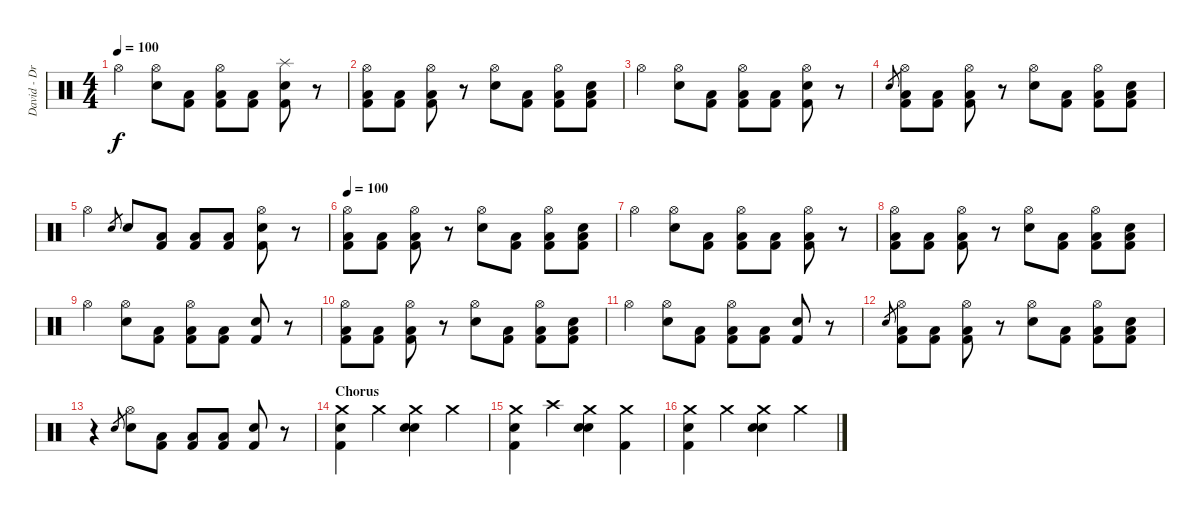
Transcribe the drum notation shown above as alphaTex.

\track ("David - Drums" "David - Dr") {instrument percussion}
\staff {score}
\articulation defaults
\ts (4 4)
\tempo 100
\clef neutral
\ks c "Hi-Hat (open)".4{dy f}
("Hi-Hat (open)" "Electric Snare (hit)").8 ("Low Floor Tom (hit)" "Kick (hit) 2").8 ("Hi-Hat (open)" "Low Floor Tom (hit)" "Kick (hit) 2").8 ("Low Floor Tom (hit)" "Kick (hit) 2").8 ("Splash (hit)" "Electric Snare (hit)" "Kick (hit) 2").8 r.8 |
("Hi-Hat (open)" "Low Floor Tom (hit)" "Kick (hit) 2").8 ("Low Floor Tom (hit)" "Kick (hit) 2").8 ("Hi-Hat (open)" "Low Floor Tom (hit)" "Kick (hit) 2").8 r.8 ("Hi-Hat (open)" "Electric Snare (hit)").8 ("Low Floor Tom (hit)" "Kick (hit) 2").8 ("Hi-Hat (open)" "Low Floor Tom (hit)" "Kick (hit) 2").8 ("Electric Snare (hit)" "Low Floor Tom (hit)" "Kick (hit) 2").8 |
"Hi-Hat (open)".4 ("Hi-Hat (open)" "Electric Snare (hit)").8 ("Low Floor Tom (hit)" "Kick (hit) 2").8 ("Hi-Hat (open)" "Low Floor Tom (hit)" "Kick (hit) 2").8 ("Low Floor Tom (hit)" "Kick (hit) 2").8 ("Hi-Hat (open)" "Electric Snare (hit)" "Kick (hit) 2").8 r.8 |
"Electric Snare (hit)".8{gr} ("Hi-Hat (open)" "Low Floor Tom (hit)" "Kick (hit) 2").8 ("Low Floor Tom (hit)" "Kick (hit) 2").8 ("Hi-Hat (open)" "Low Floor Tom (hit)" "Kick (hit) 2").8 r.8 ("Hi-Hat (open)" "Electric Snare (hit)").8 ("Low Floor Tom (hit)" "Kick (hit) 2").8 ("Hi-Hat (open)" "Low Floor Tom (hit)" "Kick (hit) 2").8 ("Electric Snare (hit)" "Low Floor Tom (hit)" "Kick (hit) 2").8 |
"Hi-Hat (open)".4 "Electric Snare (hit)".8{gr} "Electric Snare (hit)".8 ("Low Floor Tom (hit)" "Kick (hit) 2").8 ("Low Floor Tom (hit)" "Kick (hit) 2").8 ("Low Floor Tom (hit)" "Kick (hit) 2").8 ("Hi-Hat (open)" "Electric Snare (hit)" "Kick (hit) 2").8 r.8 |
\tempo 100
("Hi-Hat (open)" "Low Floor Tom (hit)" "Kick (hit) 2").8{volume 16 balance 8} ("Low Floor Tom (hit)" "Kick (hit) 2").8 ("Hi-Hat (open)" "Low Floor Tom (hit)" "Kick (hit) 2").8 r.8 ("Hi-Hat (open)" "Electric Snare (hit)").8 ("Low Floor Tom (hit)" "Kick (hit) 2").8 ("Hi-Hat (open)" "Low Floor Tom (hit)" "Kick (hit) 2").8 ("Electric Snare (hit)" "Low Floor Tom (hit)" "Kick (hit) 2").8 |
"Hi-Hat (open)".4 ("Hi-Hat (open)" "Electric Snare (hit)").8 ("Low Floor Tom (hit)" "Kick (hit) 2").8 ("Hi-Hat (open)" "Low Floor Tom (hit)" "Kick (hit) 2").8 ("Low Floor Tom (hit)" "Kick (hit) 2").8 ("Hi-Hat (open)" "Low Floor Tom (hit)" "Kick (hit) 2").8 r.8 |
("Hi-Hat (open)" "Low Floor Tom (hit)" "Kick (hit) 2").8 ("Low Floor Tom (hit)" "Kick (hit) 2").8 ("Hi-Hat (open)" "Low Floor Tom (hit)" "Kick (hit) 2").8 r.8 ("Hi-Hat (open)" "Electric Snare (hit)").8 ("Low Floor Tom (hit)" "Kick (hit) 2").8 ("Hi-Hat (open)" "Low Floor Tom (hit)" "Kick (hit) 2").8 ("Electric Snare (hit)" "Low Floor Tom (hit)" "Kick (hit) 2").8 |
"Hi-Hat (open)".4 ("Hi-Hat (open)" "Electric Snare (hit)").8 ("Low Floor Tom (hit)" "Kick (hit) 2").8 ("Hi-Hat (open)" "Low Floor Tom (hit)" "Kick (hit) 2").8 ("Low Floor Tom (hit)" "Kick (hit) 2").8 ("Electric Snare (hit)" "Kick (hit) 2").8 r.8 |
("Hi-Hat (open)" "Low Floor Tom (hit)" "Kick (hit) 2").8 ("Low Floor Tom (hit)" "Kick (hit) 2").8 ("Hi-Hat (open)" "Low Floor Tom (hit)" "Kick (hit) 2").8 r.8 ("Hi-Hat (open)" "Electric Snare (hit)").8 ("Low Floor Tom (hit)" "Kick (hit) 2").8 ("Hi-Hat (open)" "Low Floor Tom (hit)" "Kick (hit) 2").8 ("Electric Snare (hit)" "Low Floor Tom (hit)" "Kick (hit) 2").8 |
"Hi-Hat (open)".4 ("Hi-Hat (open)" "Electric Snare (hit)").8 ("Low Floor Tom (hit)" "Kick (hit) 2").8 ("Hi-Hat (open)" "Low Floor Tom (hit)" "Kick (hit) 2").8 ("Low Floor Tom (hit)" "Kick (hit) 2").8 ("Electric Snare (hit)" "Kick (hit) 2").8 r.8 |
"Electric Snare (hit)".8{gr} ("Hi-Hat (open)" "Low Floor Tom (hit)" "Kick (hit) 2").8 ("Low Floor Tom (hit)" "Kick (hit) 2").8 ("Hi-Hat (open)" "Low Floor Tom (hit)" "Kick (hit) 2").8 r.8 ("Hi-Hat (open)" "Electric Snare (hit)").8 ("Low Floor Tom (hit)" "Kick (hit) 2").8 ("Hi-Hat (open)" "Low Floor Tom (hit)" "Kick (hit) 2").8 ("Electric Snare (hit)" "Low Floor Tom (hit)" "Kick (hit) 2").8 |
r.4 "Electric Snare (hit)".8{gr} ("Hi-Hat (open)" "Electric Snare (hit)").8 ("Low Floor Tom (hit)" "Kick (hit) 2").8 ("Low Floor Tom (hit)" "Kick (hit) 2").8 ("Low Floor Tom (hit)" "Kick (hit) 2").8 ("Snare (hit) 2" "Kick (hit) 2").8 r.8 |
\section ("" "Chorus")
("Crash medium (hit)" "Snare (hit) 2" "Kick (hit) 2").4 "Crash medium (hit)".4 ("Crash medium (hit)" "Electric Snare (hit)" "Snare (hit) 2").4 "Crash medium (hit)".4 |
("Crash medium (hit)" "Snare (hit) 2" "Kick (hit) 2").4 "Crash high (hit)".4 ("Crash medium (hit)" "Electric Snare (hit)" "Snare (hit) 2").4 ("Crash medium (hit)" "Kick (hit) 2").4 |
("Crash medium (hit)" "Snare (hit) 2" "Kick (hit) 2").4 "Crash medium (hit)".4 ("Crash medium (hit)" "Electric Snare (hit)" "Snare (hit) 2").4 "Crash medium (hit)".4
